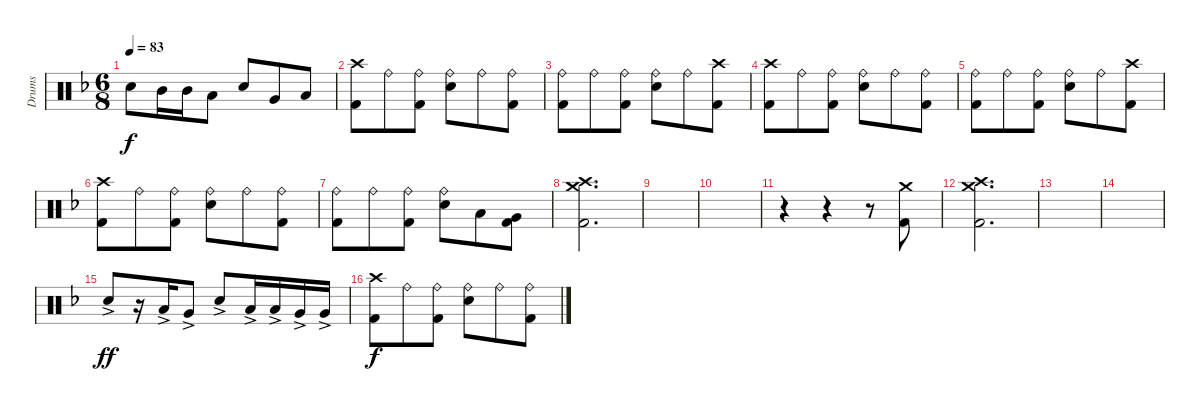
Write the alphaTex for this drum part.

\track ("Drums" "Drums") {instrument percussion}
\staff {score}
\articulation defaults
\ts (6 8)
\tempo 83
\clef neutral
\ks f "Snare (hit) 2".8{dy f} "Mid Tom (hit)".16 "Mid Tom (hit)".16 "Low Tom (hit)".8 "Snare (hit) 2".8 "Very Low Tom (hit)".8 "Low Tom (hit)".8
|
("Crash high (hit)" "Kick (hit) 2").8 "Ride (bell)".8 ("Ride (bell)" "Kick (hit) 2").8 ("Ride (bell)" "Snare (hit) 2").8 "Ride (bell)".8 ("Ride (bell)" "Kick (hit) 2").8 |
("Ride (bell)" "Kick (hit) 2").8 "Ride (bell)".8 ("Ride (bell)" "Kick (hit) 2").8 ("Ride (bell)" "Snare (hit) 2").8 "Ride (bell)".8 ("Crash high (hit)" "Kick (hit) 2").8 |
("Crash high (hit)" "Kick (hit) 2").8 "Ride (bell)".8 ("Ride (bell)" "Kick (hit) 2").8 ("Ride (bell)" "Snare (hit) 2").8 "Ride (bell)".8 ("Ride (bell)" "Kick (hit) 2").8 |
("Ride (bell)" "Kick (hit) 2").8 "Ride (bell)".8 ("Ride (bell)" "Kick (hit) 2").8 ("Ride (bell)" "Snare (hit) 2").8 "Ride (bell)".8 ("Crash high (hit)" "Kick (hit) 2").8 |
("Crash high (hit)" "Kick (hit) 2").8 "Ride (bell)".8 ("Ride (bell)" "Kick (hit) 2").8 ("Ride (bell)" "Snare (hit) 2").8 "Ride (bell)".8 ("Ride (bell)" "Kick (hit) 2").8 |
("Ride (bell)" "Kick (hit) 2").8 "Ride (bell)".8 ("Ride (bell)" "Kick (hit) 2").8 ("Ride (bell)" "Snare (hit) 2").8 "Low Tom (hit)".8 ("Very Low Tom (hit)" "Kick (hit) 2").8 |
("Crash medium (hit)" "Crash high (hit)" "Kick (hit) 2").2{d} |
|
|
r.4 r.4 r.8 ("Crash medium (hit)" "Kick (hit) 2").8 |
("Crash medium (hit)" "Crash high (hit)" "Kick (hit) 2").2{d} |
|
|
"Snare (hit) 2"{ac}.8{dy ff} r.16 "Low Tom (hit)"{ac}.16 "Very Low Tom (hit)"{ac}.8 "Snare (hit) 2"{ac}.8 "Low Tom (hit)"{ac}.16 "Low Tom (hit)"{ac}.16 "Very Low Tom (hit)"{ac}.16 "Very Low Tom (hit)"{ac}.16 |
("Crash high (hit)" "Kick (hit) 2").8{dy f} "Ride (bell)".8 ("Ride (bell)" "Kick (hit) 2").8 ("Ride (bell)" "Snare (hit) 2").8 "Ride (bell)".8 ("Ride (bell)" "Kick (hit) 2").8
